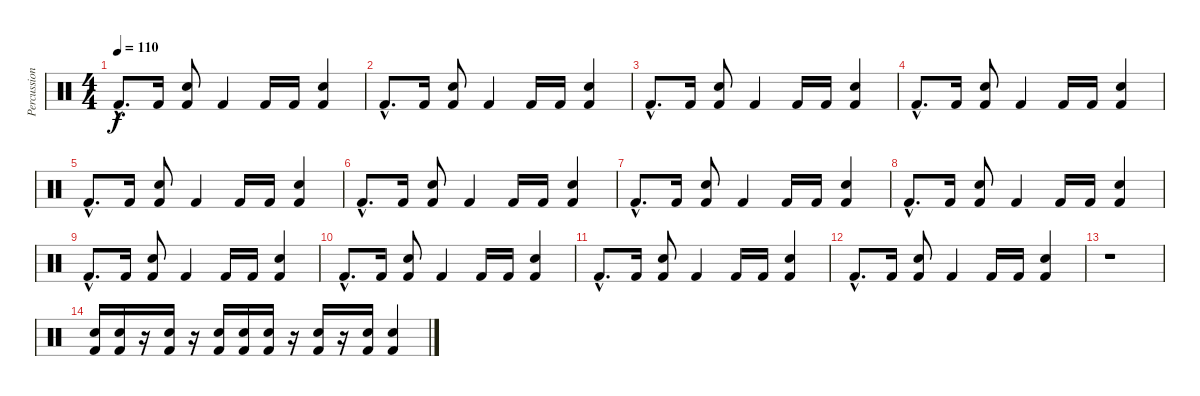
\track ("Percussioni" "Percussion") {instrument percussion}
\staff {score}
\articulation defaults
\ts (4 4)
\tempo 110
\clef neutral
\ks c "Kick (hit) 2"{hac}.8{d dy f} "Kick (hit) 2".16
("Snare (hit) 2" "Kick (hit) 2").8 "Kick (hit) 2".4 "Kick (hit) 2".16 "Kick (hit) 2".16 ("Snare (hit) 2" "Kick (hit) 2").4 |
"Kick (hit) 2"{hac}.8{d} "Kick (hit) 2".16 ("Snare (hit) 2" "Kick (hit) 2").8 "Kick (hit) 2".4 "Kick (hit) 2".16 "Kick (hit) 2".16 ("Snare (hit) 2" "Kick (hit) 2").4 |
"Kick (hit) 2"{hac}.8{d} "Kick (hit) 2".16 ("Snare (hit) 2" "Kick (hit) 2").8 "Kick (hit) 2".4 "Kick (hit) 2".16 "Kick (hit) 2".16 ("Snare (hit) 2" "Kick (hit) 2").4 |
"Kick (hit) 2"{hac}.8{d} "Kick (hit) 2".16 ("Snare (hit) 2" "Kick (hit) 2").8 "Kick (hit) 2".4 "Kick (hit) 2".16 "Kick (hit) 2".16 ("Snare (hit) 2" "Kick (hit) 2").4 |
"Kick (hit) 2"{hac}.8{d} "Kick (hit) 2".16 ("Snare (hit) 2" "Kick (hit) 2").8 "Kick (hit) 2".4 "Kick (hit) 2".16 "Kick (hit) 2".16 ("Snare (hit) 2" "Kick (hit) 2").4 |
"Kick (hit) 2"{hac}.8{d} "Kick (hit) 2".16 ("Snare (hit) 2" "Kick (hit) 2").8 "Kick (hit) 2".4 "Kick (hit) 2".16 "Kick (hit) 2".16 ("Snare (hit) 2" "Kick (hit) 2").4 |
"Kick (hit) 2"{hac}.8{d} "Kick (hit) 2".16 ("Snare (hit) 2" "Kick (hit) 2").8 "Kick (hit) 2".4 "Kick (hit) 2".16 "Kick (hit) 2".16 ("Snare (hit) 2" "Kick (hit) 2").4 |
"Kick (hit) 2"{hac}.8{d} "Kick (hit) 2".16 ("Snare (hit) 2" "Kick (hit) 2").8 "Kick (hit) 2".4 "Kick (hit) 2".16 "Kick (hit) 2".16 ("Snare (hit) 2" "Kick (hit) 2").4 |
"Kick (hit) 2"{hac}.8{d} "Kick (hit) 2".16 ("Snare (hit) 2" "Kick (hit) 2").8 "Kick (hit) 2".4 "Kick (hit) 2".16 "Kick (hit) 2".16 ("Snare (hit) 2" "Kick (hit) 2").4 |
"Kick (hit) 2"{hac}.8{d} "Kick (hit) 2".16 ("Snare (hit) 2" "Kick (hit) 2").8 "Kick (hit) 2".4 "Kick (hit) 2".16 "Kick (hit) 2".16 ("Snare (hit) 2" "Kick (hit) 2").4 |
"Kick (hit) 2"{hac}.8{d} "Kick (hit) 2".16 ("Snare (hit) 2" "Kick (hit) 2").8 "Kick (hit) 2".4 "Kick (hit) 2".16 "Kick (hit) 2".16 ("Snare (hit) 2" "Kick (hit) 2").4 |
"Kick (hit) 2"{hac}.8{d} "Kick (hit) 2".16 ("Snare (hit) 2" "Kick (hit) 2").8 "Kick (hit) 2".4 "Kick (hit) 2".16 "Kick (hit) 2".16 ("Snare (hit) 2" "Kick (hit) 2").4 |
r.1 |
("Kick (hit) 2" "Snare (hit) 2").16 ("Kick (hit) 2" "Snare (hit) 2").16 r.16 ("Kick (hit) 2" "Snare (hit) 2").16 r.16 ("Kick (hit) 2" "Snare (hit) 2").16 ("Kick (hit) 2" "Snare (hit) 2").16 ("Kick (hit) 2" "Snare (hit) 2").16 r.16 ("Kick (hit) 2" "Snare (hit) 2").16 r.16 ("Kick (hit) 2" "Snare (hit) 2").16 ("Kick (hit) 2" "Snare (hit) 2").4
